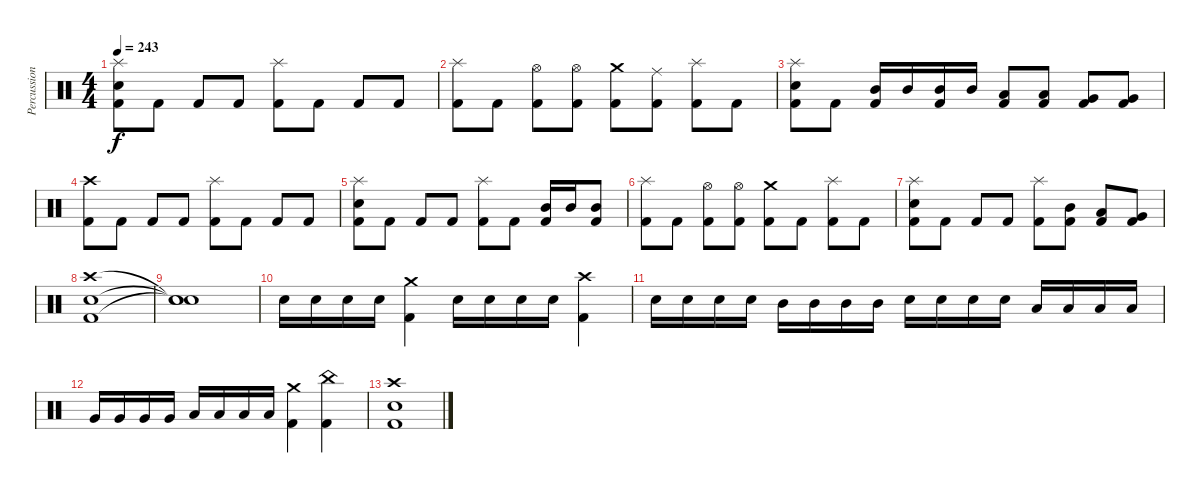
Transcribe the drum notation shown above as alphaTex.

\track ("Percussion" "Percussion") {solo instrument percussion}
\staff {score}
\articulation defaults
\ts (4 4)
\tempo 243
\clef neutral
\ks c
("Splash (hit)" "Electric Snare (hit)" "Kick (hit) 2").8{dy f} "Kick (hit) 2".8 "Kick (hit) 2".8 "Kick (hit) 2".8 ("Splash (hit)" "Kick (hit) 2").8 "Kick (hit) 2".8 "Kick (hit) 2".8 "Kick (hit) 2".8 |
("Splash (hit)" "Kick (hit) 2").8 "Kick (hit) 2".8 ("Hi-Hat (open)" "Kick (hit) 2").8 ("Hi-Hat (open)" "Kick (hit) 2").8 ("Crash medium (hit)" "Kick (hit) 2").8 ("Ride (middle)" "Kick (hit) 2").8 ("Splash (hit)" "Kick (hit) 2").8 "Kick (hit) 2".8 |
("Splash (hit)" "Electric Snare (hit)" "Kick (hit) 2").8 "Kick (hit) 2".8 ("Mid Tom (hit)" "Kick (hit) 2").16 "Mid Tom (hit)".16 ("Mid Tom (hit)" "Kick (hit) 2").16 "Mid Tom (hit)".16 ("Low Tom (hit)" "Kick (hit) 2").8 ("Low Tom (hit)" "Kick (hit) 2").8 ("Very Low Tom (hit)" "Kick (hit) 2").8 ("Very Low Tom (hit)" "Kick (hit) 2").8 |
("Crash high (hit)" "Kick (hit) 2").8 "Kick (hit) 2".8 "Kick (hit) 2".8 "Kick (hit) 2".8 ("Splash (hit)" "Kick (hit) 2").8 "Kick (hit) 2".8 "Kick (hit) 2".8 "Kick (hit) 2".8 |
("Splash (hit)" "Electric Snare (hit)" "Kick (hit) 2").8 "Kick (hit) 2".8 "Kick (hit) 2".8 "Kick (hit) 2".8 ("Splash (hit)" "Kick (hit) 2").8 "Kick (hit) 2".8 ("Mid Tom (hit)" "Kick (hit) 2").16 "Mid Tom (hit)".16 ("Mid Tom (hit)" "Kick (hit) 2").8 |
("Splash (hit)" "Kick (hit) 2").8 "Kick (hit) 2".8 ("Hi-Hat (open)" "Kick (hit) 2").8 ("Hi-Hat (open)" "Kick (hit) 2").8 ("Crash medium (hit)" "Kick (hit) 2").8 "Kick (hit) 2".8 ("Splash (hit)" "Kick (hit) 2").8 "Kick (hit) 2".8 |
("Splash (hit)" "Electric Snare (hit)" "Kick (hit) 2").8 "Kick (hit) 2".8 "Kick (hit) 2".8 "Kick (hit) 2".8 ("Splash (hit)" "Kick (hit) 2").8 ("Mid Tom (hit)" "Kick (hit) 2").8 ("Low Tom (hit)" "Kick (hit) 2").8 ("Very Low Tom (hit)" "Kick (hit) 2").8 |
("Crash high (hit)" "Electric Snare (hit)" "Kick (hit) 2").1 |
("Snare (hit)"{t} "Snare (hit)"{t} "Snare (hit)"{t}).1 |
"Electric Snare (hit)".16 "Electric Snare (hit)".16 "Electric Snare (hit)".16 "Electric Snare (hit)".16 ("Crash medium (hit)" "Kick (hit) 2").4 "Electric Snare (hit)".16 "Electric Snare (hit)".16 "Electric Snare (hit)".16 "Electric Snare (hit)".16 ("Crash high (hit)" "Kick (hit) 2").4 |
"Electric Snare (hit)".16 "Electric Snare (hit)".16 "Electric Snare (hit)".16 "Electric Snare (hit)".16 "Mid Tom (hit)".16 "Mid Tom (hit)".16 "Mid Tom (hit)".16 "Mid Tom (hit)".16 "Electric Snare (hit)".16 "Electric Snare (hit)".16 "Electric Snare (hit)".16 "Electric Snare (hit)".16 "Low Tom (hit)".16 "Low Tom (hit)".16 "Low Tom (hit)".16 "Low Tom (hit)".16 |
"Very Low Tom (hit)".16 "Very Low Tom (hit)".16 "Very Low Tom (hit)".16 "Very Low Tom (hit)".16 "Low Floor Tom (hit)".16 "Low Floor Tom (hit)".16 "Low Floor Tom (hit)".16 "Low Floor Tom (hit)".16 ("Crash medium (hit)" "Kick (hit) 2").4 ("China (hit)" "Kick (hit) 2").4 |
("Crash high (hit)" "Electric Snare (hit)" "Kick (hit) 2").1
